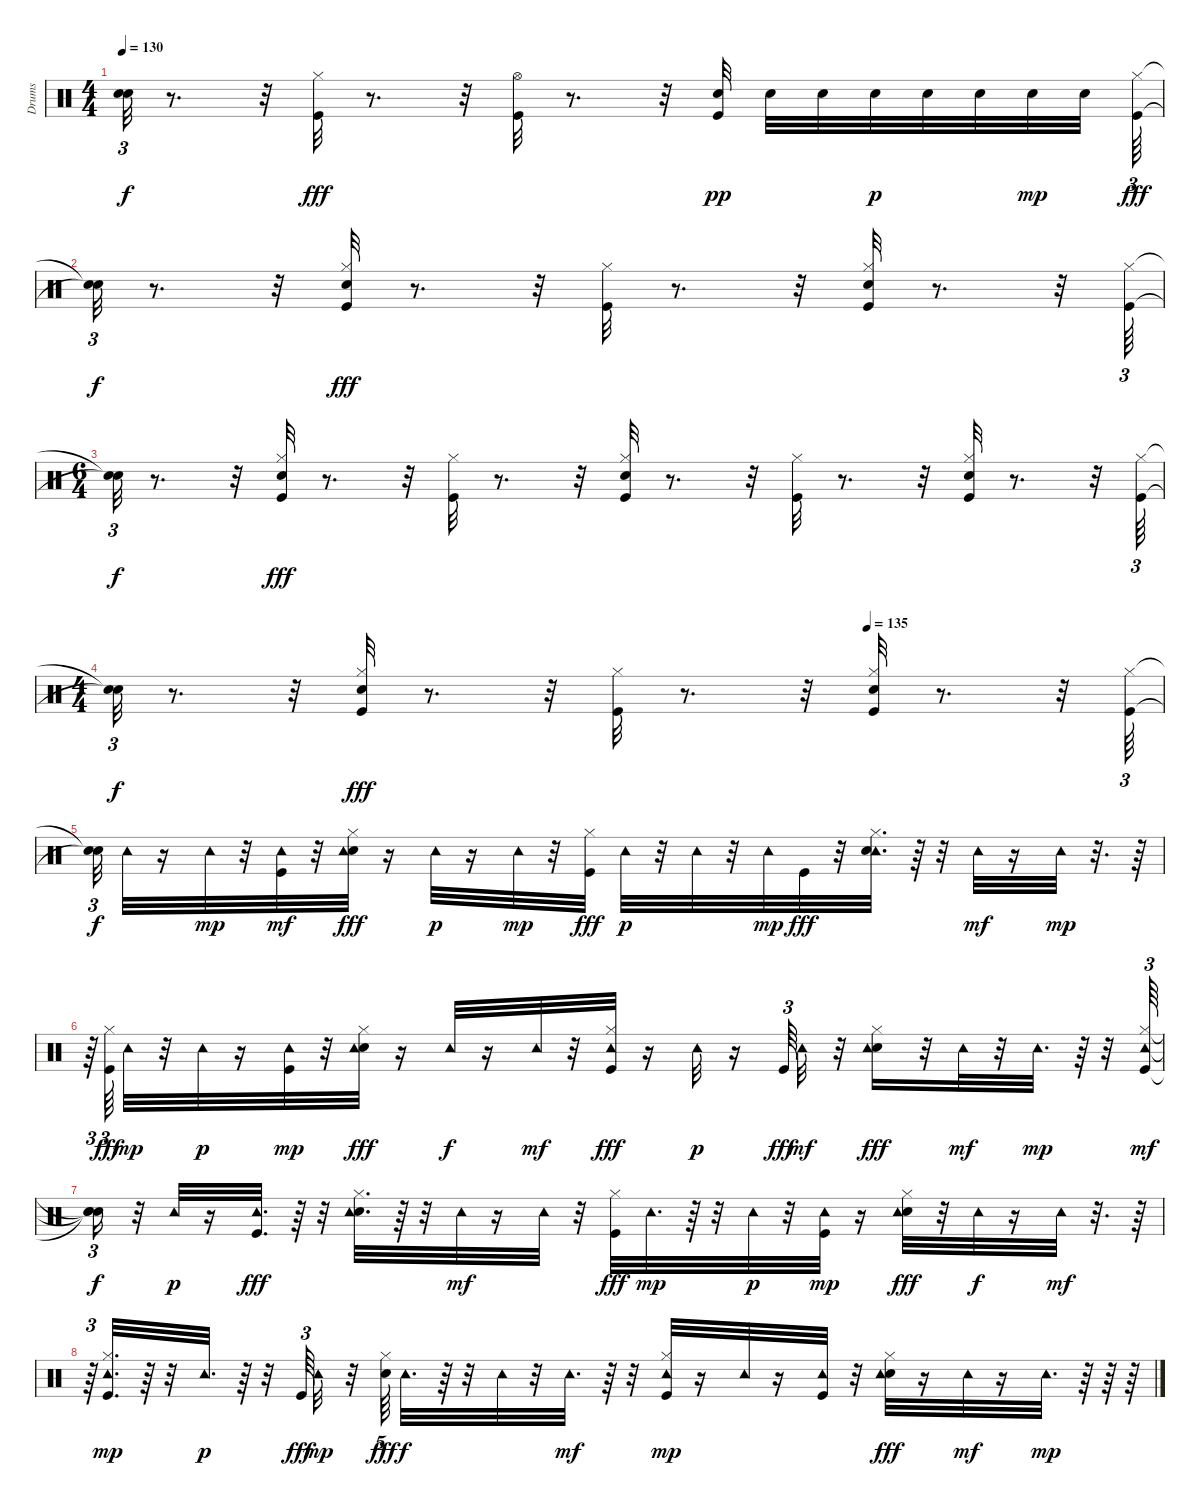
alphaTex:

\track ("Drums" "Drums") {instrument percussion}
\staff {score}
\articulation defaults
\ts (4 4)
\tempo 130
\clef neutral
\ks c
("Snare (hit)"{t} "Snare (hit)"{t}).32{tu (3 2) dy f} r.8{d} r.32 ("Kick (hit)" "Hi-Hat (closed)").32{dy fff} r.8{d} r.32 ("Hi-Hat (open)" "Kick (hit)").32 r.8{d} r.32 ("Kick (hit)" "Electric Snare (hit)").32{dy pp} "Electric Snare (hit)".32 "Electric Snare (hit)".32 "Electric Snare (hit)".32{dy p} "Electric Snare (hit)".32 "Electric Snare (hit)".32 "Electric Snare (hit)".32{dy mp} "Electric Snare (hit)".32{beam splitsecondary} ("Kick (hit)" "Hi-Hat (closed)").64{tu (3 2) dy fff} |
("Snare (hit)"{t} "Snare (hit)"{t}).32{tu (3 2) dy f} r.8{d} r.32 ("Kick (hit)" "Electric Snare (hit)" "Hi-Hat (closed)").32{dy fff} r.8{d} r.32 ("Kick (hit)" "Hi-Hat (closed)").32 r.8{d} r.32 ("Kick (hit)" "Electric Snare (hit)" "Hi-Hat (closed)").32 r.8{d} r.32 ("Kick (hit)" "Hi-Hat (closed)").64{tu (3 2)} |
\ts (6 4)
("Snare (hit)"{t} "Snare (hit)"{t}).32{tu (3 2) dy f} r.8{d} r.32 ("Kick (hit)" "Electric Snare (hit)" "Hi-Hat (closed)").32{dy fff} r.8{d} r.32 ("Kick (hit)" "Hi-Hat (closed)").32 r.8{d} r.32 ("Kick (hit)" "Electric Snare (hit)" "Hi-Hat (closed)").32 r.8{d} r.32 ("Kick (hit)" "Hi-Hat (closed)").32 r.8{d} r.32 ("Kick (hit)" "Electric Snare (hit)" "Hi-Hat (closed)").32 r.8{d} r.32 ("Kick (hit)" "Hi-Hat (closed)").64{tu (3 2)} |
\ts (4 4)
\tempo (135 0.71875)
("Snare (hit)"{t} "Snare (hit)"{t}).32{tu (3 2) dy f} r.8{d} r.32 ("Kick (hit)" "Electric Snare (hit)" "Hi-Hat (closed)").32{dy fff} r.8{d} r.32 ("Kick (hit)" "Hi-Hat (closed)").32 r.8{d} r.32 ("Kick (hit)" "Electric Snare (hit)" "Hi-Hat (closed)").32 r.8{d} r.32 ("Kick (hit)" "Hi-Hat (closed)").64{tu (3 2)} |
("Snare (hit)"{t} "Snare (hit)"{t}).32{tu (3 2) dy f} "Tambourine (hit)".32 r.16 "Tambourine (hit)".32{dy mp} r.32 ("Kick (hit)" "Tambourine (hit)").32{dy mf} r.32 ("Electric Snare (hit)" "Hi-Hat (closed)" "Tambourine (hit)").32{dy fff} r.16 "Tambourine (hit)".32{dy p} r.16 "Tambourine (hit)".32{dy mp} r.32 ("Kick (hit)" "Hi-Hat (closed)").32{dy fff} "Tambourine (hit)".32{dy p} r.32 "Tambourine (hit)".32 r.32 "Tambourine (hit)".32{dy mp} "Kick (hit)".32{dy fff} r.32 ("Tambourine (hit)" "Electric Snare (hit)" "Hi-Hat (closed)").32{d} r.64 r.32 "Tambourine (hit)".32{dy mf} r.16 "Tambourine (hit)".32{dy mp} r.32{d} r.64 |
r.64{tu (3 2)} ("Kick (hit)" "Hi-Hat (closed)").64{tu (3 2) dy fff} "Tambourine (hit)".32{dy mp} r.32 "Tambourine (hit)".32{dy p} r.16 ("Kick (hit)" "Tambourine (hit)").32{dy mp} r.32 ("Electric Snare (hit)" "Hi-Hat (closed)" "Tambourine (hit)").32{dy fff} r.16 "Tambourine (hit)".32{dy f} r.16 "Tambourine (hit)".32{dy mf} r.32 ("Tambourine (hit)" "Kick (hit)" "Hi-Hat (closed)").32{dy fff} r.16 "Tambourine (hit)".32{dy p} r.16 "Kick (hit)".64{tu (3 2) dy fff} "Tambourine (hit)".32{dy mf} r.32 ("Electric Snare (hit)" "Hi-Hat (closed)" "Tambourine (hit)").16{dy fff} r.32 "Tambourine (hit)".32{dy mf} r.32 "Tambourine (hit)".32{d dy mp} r.64 r.32 ("Kick (hit)" "Hi-Hat (closed)" "Tambourine (hit)").64{tu (3 2) dy mf} |
("Snare (hit)"{t} "Snare (hit)"{t} "Snare (hit)"{t}).16{tu (3 2) dy f} r.32 "Tambourine (hit)".32{dy p} r.16 ("Tambourine (hit)" "Kick (hit)").32{d dy fff} r.64 r.32 ("Electric Snare (hit)" "Hi-Hat (closed)" "Tambourine (hit)").32{d} r.64 r.32 "Tambourine (hit)".32{dy mf} r.16 "Tambourine (hit)".32 r.32 ("Kick (hit)" "Hi-Hat (closed)").32{dy fff} "Tambourine (hit)".32{d dy mp} r.64 r.32 "Tambourine (hit)".32{dy p} r.32 ("Kick (hit)" "Tambourine (hit)").32{dy mp} r.16 ("Electric Snare (hit)" "Hi-Hat (closed)" "Tambourine (hit)").32{dy fff} r.32 "Tambourine (hit)".32{dy f} r.16 "Tambourine (hit)".32{dy mf} r.32{d} r.64 |
r.64{tu (3 2)} ("Kick (hit)" "Hi-Hat (closed)" "Tambourine (hit)").32{d dy mp} r.64 r.32 "Tambourine (hit)".32{d dy p} r.64 r.32 "Kick (hit)".64{tu (3 2) dy fff} "Tambourine (hit)".32{dy mp} r.32 ("Electric Snare (hit)" "Hi-Hat (closed)").64{tu (5 4) dy fff} "Tambourine (hit)".32{d dy f} r.64 r.32 "Tambourine (hit)".32 r.32 "Tambourine (hit)".32{d dy mf} r.64 r.32 ("Kick (hit)" "Hi-Hat (closed)" "Tambourine (hit)").32{dy mp} r.16 "Tambourine (hit)".32 r.16 ("Kick (hit)" "Tambourine (hit)").32 r.32 ("Electric Snare (hit)" "Hi-Hat (closed)" "Tambourine (hit)").32{dy fff} r.16 "Tambourine (hit)".32{dy mf} r.16 "Tambourine (hit)".32{d dy mp} r.64 r.64 r.64
